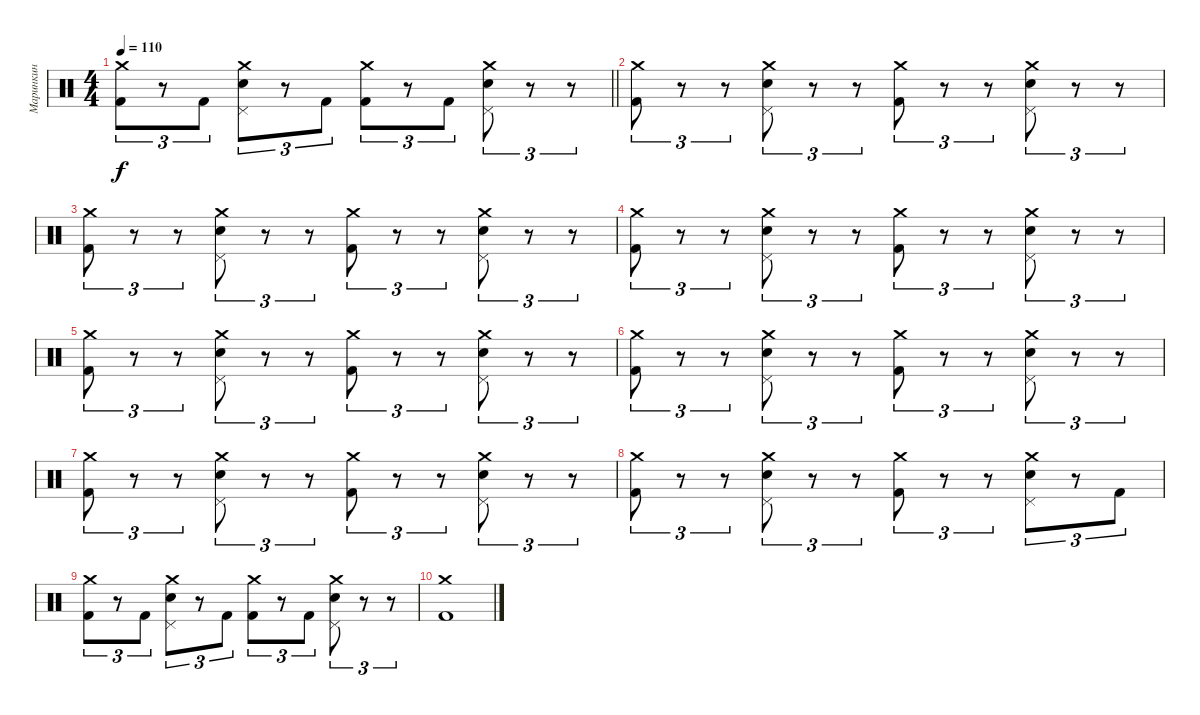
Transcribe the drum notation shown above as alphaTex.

\track ("Маринкин " "Маринкин ") {instrument percussion}
\staff {score}
\articulation defaults
\ts (4 4)
\tempo 110
\clef neutral
\barLineRight lightlight
\ks c
("Kick (hit) 2" "Crash medium (hit)").8{tu (3 2) dy f} r.8{tu (3 2)} "Kick (hit) 2".8{tu (3 2)} ("Snare (hit) 2" "Crash medium (hit)" "Pedal Hi-Hat (hit)").8{tu (3 2)} r.8{tu (3 2)} "Kick (hit) 2".8{tu (3 2)} ("Kick (hit) 2" "Crash medium (hit)").8{tu (3 2)} r.8{tu (3 2)} "Kick (hit) 2".8{tu (3 2)} ("Snare (hit) 2" "Crash medium (hit)" "Pedal Hi-Hat (hit)").8{tu (3 2)} r.8{tu (3 2)} r.8{tu (3 2)} |
("Kick (hit) 2" "Crash medium (hit)").8{tu (3 2)} r.8{tu (3 2)} r.8{tu (3 2)} ("Snare (hit) 2" "Crash medium (hit)" "Pedal Hi-Hat (hit)").8{tu (3 2)} r.8{tu (3 2)} r.8{tu (3 2)} ("Kick (hit) 2" "Crash medium (hit)").8{tu (3 2)} r.8{tu (3 2)} r.8{tu (3 2)} ("Snare (hit) 2" "Crash medium (hit)" "Pedal Hi-Hat (hit)").8{tu (3 2)} r.8{tu (3 2)} r.8{tu (3 2)} |
("Kick (hit) 2" "Crash medium (hit)").8{tu (3 2)} r.8{tu (3 2)} r.8{tu (3 2)} ("Snare (hit) 2" "Crash medium (hit)" "Pedal Hi-Hat (hit)").8{tu (3 2)} r.8{tu (3 2)} r.8{tu (3 2)} ("Kick (hit) 2" "Crash medium (hit)").8{tu (3 2)} r.8{tu (3 2)} r.8{tu (3 2)} ("Snare (hit) 2" "Crash medium (hit)" "Pedal Hi-Hat (hit)").8{tu (3 2)} r.8{tu (3 2)} r.8{tu (3 2)} |
("Kick (hit) 2" "Crash medium (hit)").8{tu (3 2)} r.8{tu (3 2)} r.8{tu (3 2)} ("Snare (hit) 2" "Crash medium (hit)" "Pedal Hi-Hat (hit)").8{tu (3 2)} r.8{tu (3 2)} r.8{tu (3 2)} ("Kick (hit) 2" "Crash medium (hit)").8{tu (3 2)} r.8{tu (3 2)} r.8{tu (3 2)} ("Snare (hit) 2" "Crash medium (hit)" "Pedal Hi-Hat (hit)").8{tu (3 2)} r.8{tu (3 2)} r.8{tu (3 2)} |
("Kick (hit) 2" "Crash medium (hit)").8{tu (3 2)} r.8{tu (3 2)} r.8{tu (3 2)} ("Snare (hit) 2" "Crash medium (hit)" "Pedal Hi-Hat (hit)").8{tu (3 2)} r.8{tu (3 2)} r.8{tu (3 2)} ("Kick (hit) 2" "Crash medium (hit)").8{tu (3 2)} r.8{tu (3 2)} r.8{tu (3 2)} ("Snare (hit) 2" "Crash medium (hit)" "Pedal Hi-Hat (hit)").8{tu (3 2)} r.8{tu (3 2)} r.8{tu (3 2)} |
("Kick (hit) 2" "Crash medium (hit)").8{tu (3 2)} r.8{tu (3 2)} r.8{tu (3 2)} ("Snare (hit) 2" "Crash medium (hit)" "Pedal Hi-Hat (hit)").8{tu (3 2)} r.8{tu (3 2)} r.8{tu (3 2)} ("Kick (hit) 2" "Crash medium (hit)").8{tu (3 2)} r.8{tu (3 2)} r.8{tu (3 2)} ("Snare (hit) 2" "Crash medium (hit)" "Pedal Hi-Hat (hit)").8{tu (3 2)} r.8{tu (3 2)} r.8{tu (3 2)} |
("Kick (hit) 2" "Crash medium (hit)").8{tu (3 2)} r.8{tu (3 2)} r.8{tu (3 2)} ("Snare (hit) 2" "Crash medium (hit)" "Pedal Hi-Hat (hit)").8{tu (3 2)} r.8{tu (3 2)} r.8{tu (3 2)} ("Kick (hit) 2" "Crash medium (hit)").8{tu (3 2)} r.8{tu (3 2)} r.8{tu (3 2)} ("Snare (hit) 2" "Crash medium (hit)" "Pedal Hi-Hat (hit)").8{tu (3 2)} r.8{tu (3 2)} r.8{tu (3 2)} |
("Kick (hit) 2" "Crash medium (hit)").8{tu (3 2)} r.8{tu (3 2)} r.8{tu (3 2)} ("Snare (hit) 2" "Crash medium (hit)" "Pedal Hi-Hat (hit)").8{tu (3 2)} r.8{tu (3 2)} r.8{tu (3 2)} ("Kick (hit) 2" "Crash medium (hit)").8{tu (3 2)} r.8{tu (3 2)} r.8{tu (3 2)} ("Snare (hit) 2" "Crash medium (hit)" "Pedal Hi-Hat (hit)").8{tu (3 2)} r.8{tu (3 2)} "Kick (hit) 2".8{tu (3 2)} |
("Kick (hit) 2" "Crash medium (hit)").8{tu (3 2)} r.8{tu (3 2)} "Kick (hit) 2".8{tu (3 2)} ("Snare (hit) 2" "Crash medium (hit)" "Pedal Hi-Hat (hit)").8{tu (3 2)} r.8{tu (3 2)} "Kick (hit) 2".8{tu (3 2)} ("Kick (hit) 2" "Crash medium (hit)").8{tu (3 2)} r.8{tu (3 2)} "Kick (hit) 2".8{tu (3 2)} ("Snare (hit) 2" "Crash medium (hit)" "Pedal Hi-Hat (hit)").8{tu (3 2)} r.8{tu (3 2)} r.8{tu (3 2)} |
("Kick (hit) 2" "Crash medium (hit)").1
